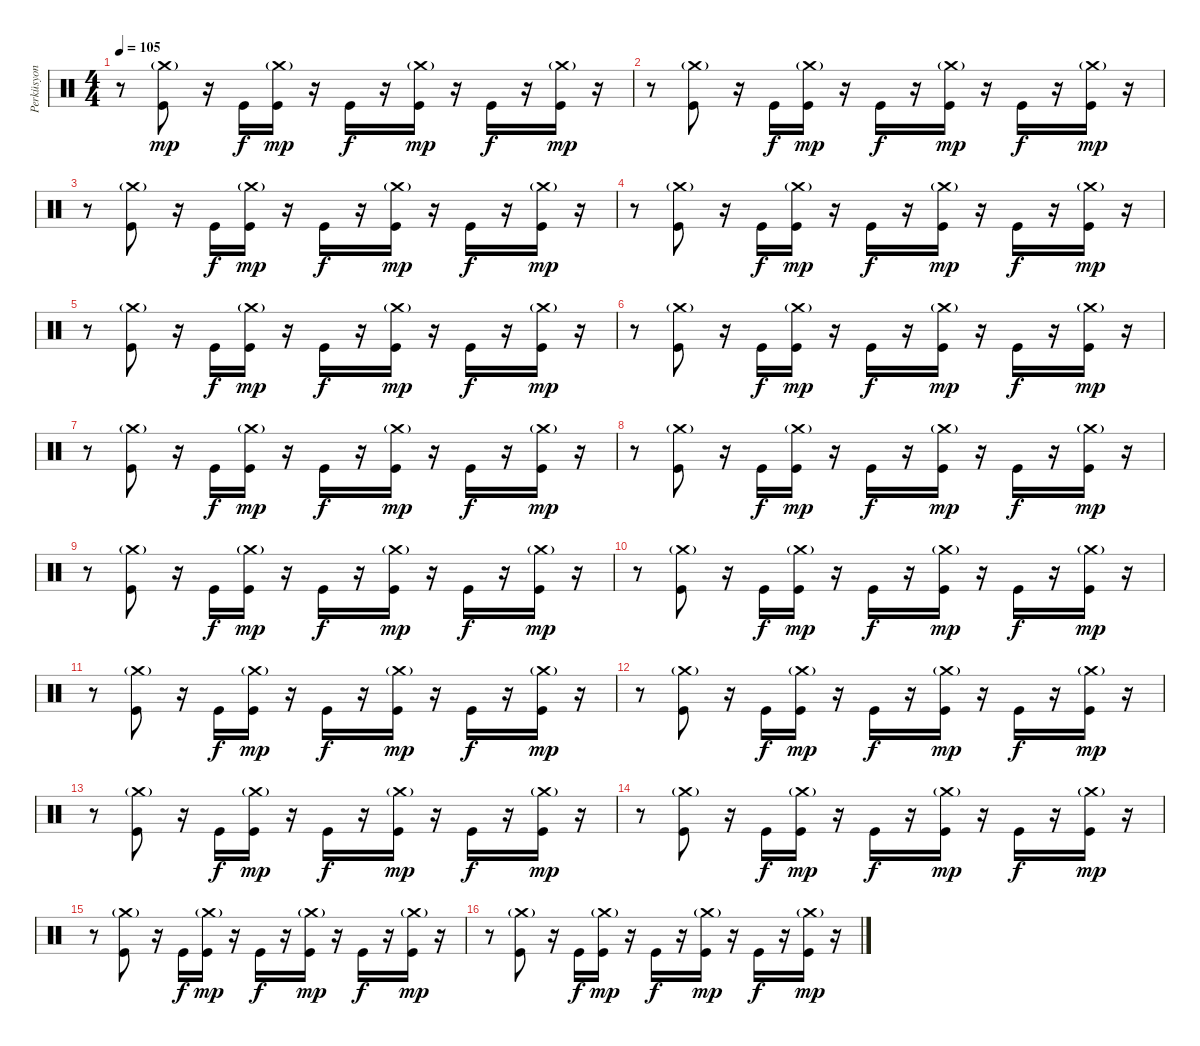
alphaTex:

\track ("Perküsyon" "Perküsyon") {instrument percussion}
\staff {score}
\articulation defaults
\ts (4 4)
\tempo 105
\clef neutral
\ks c
r.8{dy mp} ("Crash medium (hit)"{g} "Kick (hit)").8 r.16 "Kick (hit)".16{dy f} ("Crash medium (hit)"{g} "Kick (hit)").16{dy mp} r.16 "Kick (hit)".16{dy f} r.16 ("Crash medium (hit)"{g} "Kick (hit)").16{dy mp} r.16 "Kick (hit)".16{dy f} r.16 ("Crash medium (hit)"{g} "Kick (hit)").16{dy mp} r.16 |
r.8 ("Crash medium (hit)"{g} "Kick (hit)").8 r.16 "Kick (hit)".16{dy f} ("Crash medium (hit)"{g} "Kick (hit)").16{dy mp} r.16 "Kick (hit)".16{dy f} r.16 ("Crash medium (hit)"{g} "Kick (hit)").16{dy mp} r.16 "Kick (hit)".16{dy f} r.16 ("Crash medium (hit)"{g} "Kick (hit)").16{dy mp} r.16 |
r.8 ("Crash medium (hit)"{g} "Kick (hit)").8 r.16 "Kick (hit)".16{dy f} ("Crash medium (hit)"{g} "Kick (hit)").16{dy mp} r.16 "Kick (hit)".16{dy f} r.16 ("Crash medium (hit)"{g} "Kick (hit)").16{dy mp} r.16 "Kick (hit)".16{dy f} r.16 ("Crash medium (hit)"{g} "Kick (hit)").16{dy mp} r.16 |
r.8 ("Crash medium (hit)"{g} "Kick (hit)").8 r.16 "Kick (hit)".16{dy f} ("Crash medium (hit)"{g} "Kick (hit)").16{dy mp} r.16 "Kick (hit)".16{dy f} r.16 ("Crash medium (hit)"{g} "Kick (hit)").16{dy mp} r.16 "Kick (hit)".16{dy f} r.16 ("Crash medium (hit)"{g} "Kick (hit)").16{dy mp} r.16 |
r.8 ("Crash medium (hit)"{g} "Kick (hit)").8 r.16 "Kick (hit)".16{dy f} ("Crash medium (hit)"{g} "Kick (hit)").16{dy mp} r.16 "Kick (hit)".16{dy f} r.16 ("Crash medium (hit)"{g} "Kick (hit)").16{dy mp} r.16 "Kick (hit)".16{dy f} r.16 ("Crash medium (hit)"{g} "Kick (hit)").16{dy mp} r.16 |
r.8 ("Crash medium (hit)"{g} "Kick (hit)").8 r.16 "Kick (hit)".16{dy f} ("Crash medium (hit)"{g} "Kick (hit)").16{dy mp} r.16 "Kick (hit)".16{dy f} r.16 ("Crash medium (hit)"{g} "Kick (hit)").16{dy mp} r.16 "Kick (hit)".16{dy f} r.16 ("Crash medium (hit)"{g} "Kick (hit)").16{dy mp} r.16 |
r.8 ("Crash medium (hit)"{g} "Kick (hit)").8 r.16 "Kick (hit)".16{dy f} ("Crash medium (hit)"{g} "Kick (hit)").16{dy mp} r.16 "Kick (hit)".16{dy f} r.16 ("Crash medium (hit)"{g} "Kick (hit)").16{dy mp} r.16 "Kick (hit)".16{dy f} r.16 ("Crash medium (hit)"{g} "Kick (hit)").16{dy mp} r.16 |
r.8 ("Crash medium (hit)"{g} "Kick (hit)").8 r.16 "Kick (hit)".16{dy f} ("Crash medium (hit)"{g} "Kick (hit)").16{dy mp} r.16 "Kick (hit)".16{dy f} r.16 ("Crash medium (hit)"{g} "Kick (hit)").16{dy mp} r.16 "Kick (hit)".16{dy f} r.16 ("Crash medium (hit)"{g} "Kick (hit)").16{dy mp} r.16 |
r.8 ("Crash medium (hit)"{g} "Kick (hit)").8 r.16 "Kick (hit)".16{dy f} ("Crash medium (hit)"{g} "Kick (hit)").16{dy mp} r.16 "Kick (hit)".16{dy f} r.16 ("Crash medium (hit)"{g} "Kick (hit)").16{dy mp} r.16 "Kick (hit)".16{dy f} r.16 ("Crash medium (hit)"{g} "Kick (hit)").16{dy mp} r.16 |
r.8 ("Crash medium (hit)"{g} "Kick (hit)").8 r.16 "Kick (hit)".16{dy f} ("Crash medium (hit)"{g} "Kick (hit)").16{dy mp} r.16 "Kick (hit)".16{dy f} r.16 ("Crash medium (hit)"{g} "Kick (hit)").16{dy mp} r.16 "Kick (hit)".16{dy f} r.16 ("Crash medium (hit)"{g} "Kick (hit)").16{dy mp} r.16 |
r.8 ("Crash medium (hit)"{g} "Kick (hit)").8 r.16 "Kick (hit)".16{dy f} ("Crash medium (hit)"{g} "Kick (hit)").16{dy mp} r.16 "Kick (hit)".16{dy f} r.16 ("Crash medium (hit)"{g} "Kick (hit)").16{dy mp} r.16 "Kick (hit)".16{dy f} r.16 ("Crash medium (hit)"{g} "Kick (hit)").16{dy mp} r.16 |
r.8 ("Crash medium (hit)"{g} "Kick (hit)").8 r.16 "Kick (hit)".16{dy f} ("Crash medium (hit)"{g} "Kick (hit)").16{dy mp} r.16 "Kick (hit)".16{dy f} r.16 ("Crash medium (hit)"{g} "Kick (hit)").16{dy mp} r.16 "Kick (hit)".16{dy f} r.16 ("Crash medium (hit)"{g} "Kick (hit)").16{dy mp} r.16 |
r.8 ("Crash medium (hit)"{g} "Kick (hit)").8 r.16 "Kick (hit)".16{dy f} ("Crash medium (hit)"{g} "Kick (hit)").16{dy mp} r.16 "Kick (hit)".16{dy f} r.16 ("Crash medium (hit)"{g} "Kick (hit)").16{dy mp} r.16 "Kick (hit)".16{dy f} r.16 ("Crash medium (hit)"{g} "Kick (hit)").16{dy mp} r.16 |
r.8 ("Crash medium (hit)"{g} "Kick (hit)").8 r.16 "Kick (hit)".16{dy f} ("Crash medium (hit)"{g} "Kick (hit)").16{dy mp} r.16 "Kick (hit)".16{dy f} r.16 ("Crash medium (hit)"{g} "Kick (hit)").16{dy mp} r.16 "Kick (hit)".16{dy f} r.16 ("Crash medium (hit)"{g} "Kick (hit)").16{dy mp} r.16 |
r.8 ("Crash medium (hit)"{g} "Kick (hit)").8 r.16 "Kick (hit)".16{dy f} ("Crash medium (hit)"{g} "Kick (hit)").16{dy mp} r.16 "Kick (hit)".16{dy f} r.16 ("Crash medium (hit)"{g} "Kick (hit)").16{dy mp} r.16 "Kick (hit)".16{dy f} r.16 ("Crash medium (hit)"{g} "Kick (hit)").16{dy mp} r.16 |
r.8 ("Crash medium (hit)"{g} "Kick (hit)").8 r.16 "Kick (hit)".16{dy f} ("Crash medium (hit)"{g} "Kick (hit)").16{dy mp} r.16 "Kick (hit)".16{dy f} r.16 ("Crash medium (hit)"{g} "Kick (hit)").16{dy mp} r.16 "Kick (hit)".16{dy f} r.16 ("Crash medium (hit)"{g} "Kick (hit)").16{dy mp} r.16
